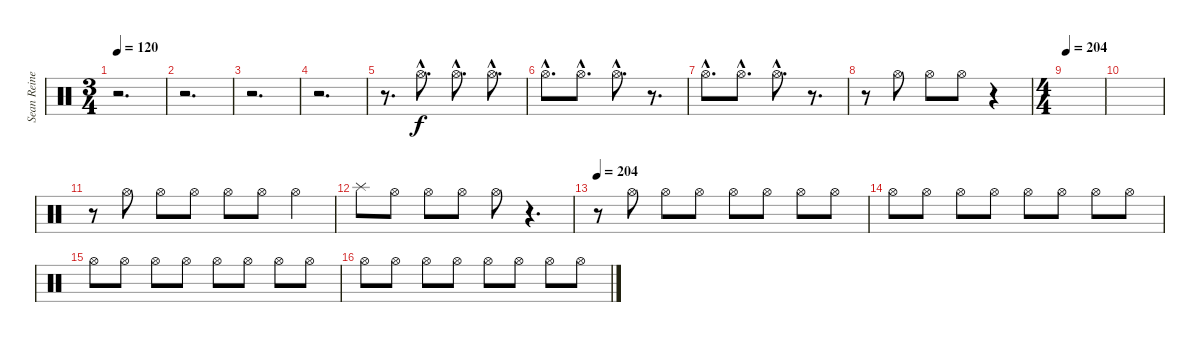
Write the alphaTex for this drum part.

\track ("Sean Reinert" "Sean Reine") {instrument percussion}
\staff {score}
\articulation defaults
\ts (3 4)
\tempo 120
\clef neutral
\ks c
r.2{d dy f} |
r.2{d} |
r.2{d} |
r.2{d} |
r.8{d} "Hi-Hat (open)"{hac}.8{d} "Hi-Hat (open)"{hac}.8{d} "Hi-Hat (open)"{hac}.8{d} |
"Hi-Hat (open)"{hac}.8{d} "Hi-Hat (open)"{hac}.8{d} "Hi-Hat (open)"{hac}.8{d} r.8{d} |
"Hi-Hat (open)"{hac}.8{d} "Hi-Hat (open)"{hac}.8{d} "Hi-Hat (open)"{hac}.8{d} r.8{d} |
r.8 "Hi-Hat (open)".8 "Hi-Hat (open)".8 "Hi-Hat (open)".8 r.4 |
\ts (4 4)
\tempo 204
|
|
r.8 "Hi-Hat (open)".8 "Hi-Hat (open)".8 "Hi-Hat (open)".8 "Hi-Hat (open)".8 "Hi-Hat (open)".8 "Hi-Hat (open)".4 |
"Splash (hit)".8 "Hi-Hat (open)".8 "Hi-Hat (open)".8 "Hi-Hat (open)".8 "Hi-Hat (open)".8 r.4{d} |
\tempo 204
r.8 "Hi-Hat (open)".8 "Hi-Hat (open)".8 "Hi-Hat (open)".8 "Hi-Hat (open)".8 "Hi-Hat (open)".8 "Hi-Hat (open)".8 "Hi-Hat (open)".8 |
"Hi-Hat (open)".8 "Hi-Hat (open)".8 "Hi-Hat (open)".8 "Hi-Hat (open)".8 "Hi-Hat (open)".8 "Hi-Hat (open)".8 "Hi-Hat (open)".8 "Hi-Hat (open)".8 |
"Hi-Hat (open)".8 "Hi-Hat (open)".8 "Hi-Hat (open)".8 "Hi-Hat (open)".8 "Hi-Hat (open)".8 "Hi-Hat (open)".8 "Hi-Hat (open)".8 "Hi-Hat (open)".8 |
"Hi-Hat (open)".8 "Hi-Hat (open)".8 "Hi-Hat (open)".8 "Hi-Hat (open)".8 "Hi-Hat (open)".8 "Hi-Hat (open)".8 "Hi-Hat (open)".8 "Hi-Hat (open)".8
